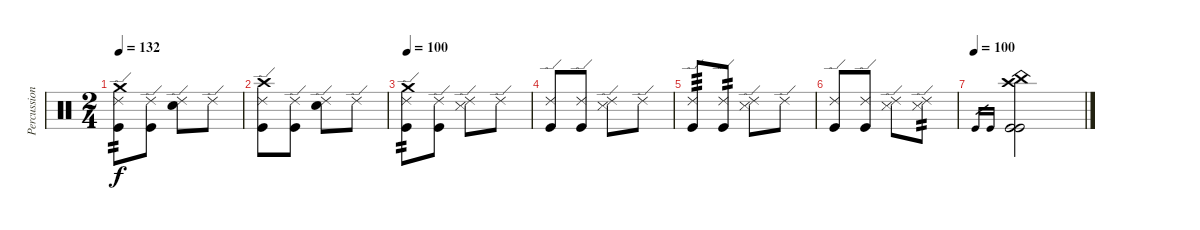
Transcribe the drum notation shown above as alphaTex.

\track ("Percussion" "Percussion") {instrument percussion}
\staff {score}
\articulation defaults
\ts (2 4)
\tempo 132
\clef neutral
\ks c
("Crash medium (hit)" "Ride (edge) 2" "Kick (hit)").8{tp 2 dy f} ("Ride (edge) 2" "Kick (hit)").8 ("Ride (edge) 2" "Electric Snare (hit)").8 "Ride (edge) 2".8 |
("Crash high (hit)" "Ride (edge) 2" "Kick (hit)").8 ("Ride (edge) 2" "Kick (hit)").8 ("Ride (edge) 2" "Electric Snare (hit)").8 "Ride (edge) 2".8 |
\tempo 100
("Crash medium (hit)" "Ride (edge) 2" "Kick (hit)").8{tp 2} ("Ride (edge) 2" "Kick (hit)").8 ("Ride (edge) 2" "Snare (side stick) 3").8 "Ride (edge) 2".8 |
("Ride (edge) 2" "Kick (hit)").8 ("Ride (edge) 2" "Kick (hit)").8 ("Ride (edge) 2" "Snare (side stick) 3").8 "Ride (edge) 2".8 |
("Ride (edge) 2" "Kick (hit)").8{tp 3} ("Ride (edge) 2" "Kick (hit)").8{tp 2} ("Ride (edge) 2" "Snare (side stick) 3").8 "Ride (edge) 2".8 |
("Ride (edge) 2" "Kick (hit)").8 ("Ride (edge) 2" "Kick (hit)").8 ("Ride (edge) 2" "Snare (side stick) 3").8 ("Ride (edge) 2" "Snare (side stick) 3").8{tp 2} |
\tempo (100)
"Kick (hit)".16{gr} "Kick (hit)".16{gr} ("China (hit)" "Crash high (hit)" "Kick (hit)" "Kick (hit)").2
